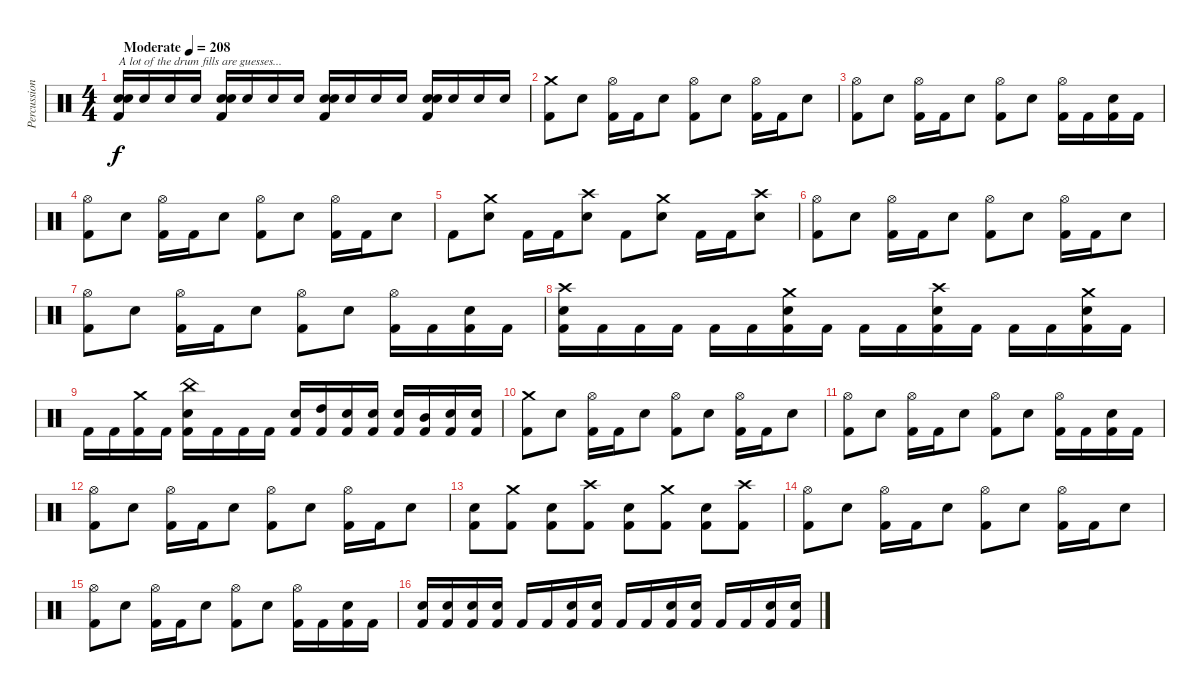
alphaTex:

\track ("Percussion" "Percussion") {instrument percussion}
\staff {score}
\articulation defaults
\ts (4 4)
\tempo (208 "Moderate")
\clef neutral
\ks c
("Electric Snare (hit)" "Electric Snare (hit)" "Kick (hit) 2").16{txt "A lot of the drum fills are guesses..." dy f} "Electric Snare (hit)".16 "Electric Snare (hit)".16 "Electric Snare (hit)".16 ("Electric Snare (hit)" "Electric Snare (hit)" "Kick (hit) 2").16 "Electric Snare (hit)".16 "Electric Snare (hit)".16 "Electric Snare (hit)".16 ("Electric Snare (hit)" "Electric Snare (hit)" "Kick (hit) 2").16 "Electric Snare (hit)".16 "Electric Snare (hit)".16 "Electric Snare (hit)".16 ("Electric Snare (hit)" "Electric Snare (hit)" "Kick (hit) 2").16 "Electric Snare (hit)".16 "Electric Snare (hit)".16 "Electric Snare (hit)".16 |
("Crash medium (hit)" "Kick (hit) 2").8 "Electric Snare (hit)".8 ("Hi-Hat (open)" "Kick (hit) 2").16 "Kick (hit) 2".16 "Electric Snare (hit)".8 ("Hi-Hat (open)" "Kick (hit) 2").8 "Electric Snare (hit)".8 ("Hi-Hat (open)" "Kick (hit) 2").16 "Kick (hit) 2".16 "Electric Snare (hit)".8 |
("Hi-Hat (open)" "Kick (hit) 2").8 "Electric Snare (hit)".8 ("Hi-Hat (open)" "Kick (hit) 2").16 "Kick (hit) 2".16 "Electric Snare (hit)".8 ("Hi-Hat (open)" "Kick (hit) 2").8 "Electric Snare (hit)".8 ("Hi-Hat (open)" "Kick (hit) 2").16 "Kick (hit) 2".16 ("Electric Snare (hit)" "Kick (hit) 2").16 "Kick (hit) 2".16 |
("Hi-Hat (open)" "Kick (hit) 2").8 "Electric Snare (hit)".8 ("Hi-Hat (open)" "Kick (hit) 2").16 "Kick (hit) 2".16 "Electric Snare (hit)".8 ("Hi-Hat (open)" "Kick (hit) 2").8 "Electric Snare (hit)".8 ("Hi-Hat (open)" "Kick (hit) 2").16 "Kick (hit) 2".16 "Electric Snare (hit)".8 |
"Kick (hit) 2".8 ("Crash medium (hit)" "Electric Snare (hit)").8 "Kick (hit) 2".16 "Kick (hit) 2".16 ("Crash high (hit)" "Electric Snare (hit)").8 "Kick (hit) 2".8 ("Crash medium (hit)" "Electric Snare (hit)").8 "Kick (hit) 2".16 "Kick (hit) 2".16 ("Crash high (hit)" "Electric Snare (hit)").8 |
("Hi-Hat (open)" "Kick (hit) 2").8 "Electric Snare (hit)".8 ("Hi-Hat (open)" "Kick (hit) 2").16 "Kick (hit) 2".16 "Electric Snare (hit)".8 ("Hi-Hat (open)" "Kick (hit) 2").8 "Electric Snare (hit)".8 ("Hi-Hat (open)" "Kick (hit) 2").16 "Kick (hit) 2".16 "Electric Snare (hit)".8 |
("Hi-Hat (open)" "Kick (hit) 2").8 "Electric Snare (hit)".8 ("Hi-Hat (open)" "Kick (hit) 2").16 "Kick (hit) 2".16 "Electric Snare (hit)".8 ("Hi-Hat (open)" "Kick (hit) 2").8 "Electric Snare (hit)".8 ("Hi-Hat (open)" "Kick (hit) 2").16 "Kick (hit) 2".16 ("Electric Snare (hit)" "Kick (hit) 2").16 "Kick (hit) 2".16 |
("Crash high (hit)" "Electric Snare (hit)" "Kick (hit) 2").16 "Kick (hit) 2".16 "Kick (hit) 2".16 "Kick (hit) 2".16 "Kick (hit) 2".16 "Kick (hit) 2".16 ("Crash medium (hit)" "Electric Snare (hit)" "Kick (hit) 2").16 "Kick (hit) 2".16 "Kick (hit) 2".16 "Kick (hit) 2".16 ("Crash high (hit)" "Electric Snare (hit)" "Kick (hit) 2").16 "Kick (hit) 2".16 "Kick (hit) 2".16 "Kick (hit) 2".16 ("Crash medium (hit)" "Electric Snare (hit)" "Kick (hit) 2").16 "Kick (hit) 2".16 |
"Kick (hit) 2".16 "Kick (hit) 2".16 ("Crash medium (hit)" "Kick (hit) 2").16 "Kick (hit) 2".16 ("China (hit)" "Electric Snare (hit)" "Kick (hit) 2").16 "Kick (hit) 2".16 "Kick (hit) 2".16 "Kick (hit) 2".16 ("Electric Snare (hit)" "Kick (hit) 2").16 ("High Tom (hit)" "Kick (hit) 2").16 ("Electric Snare (hit)" "Kick (hit) 2").16 ("Electric Snare (hit)" "Kick (hit) 2").16 ("Electric Snare (hit)" "Kick (hit) 2").16 ("Mid Tom (hit)" "Kick (hit) 2").16 ("Electric Snare (hit)" "Kick (hit) 2").16 ("Electric Snare (hit)" "Kick (hit) 2").16 |
("Crash medium (hit)" "Kick (hit) 2").8 "Electric Snare (hit)".8 ("Hi-Hat (open)" "Kick (hit) 2").16 "Kick (hit) 2".16 "Electric Snare (hit)".8 ("Hi-Hat (open)" "Kick (hit) 2").8 "Electric Snare (hit)".8 ("Hi-Hat (open)" "Kick (hit) 2").16 "Kick (hit) 2".16 "Electric Snare (hit)".8 |
("Hi-Hat (open)" "Kick (hit) 2").8 "Electric Snare (hit)".8 ("Hi-Hat (open)" "Kick (hit) 2").16 "Kick (hit) 2".16 "Electric Snare (hit)".8 ("Hi-Hat (open)" "Kick (hit) 2").8 "Electric Snare (hit)".8 ("Hi-Hat (open)" "Kick (hit) 2").16 "Kick (hit) 2".16 ("Electric Snare (hit)" "Kick (hit) 2").16 "Kick (hit) 2".16 |
("Hi-Hat (open)" "Kick (hit) 2").8 "Electric Snare (hit)".8 ("Hi-Hat (open)" "Kick (hit) 2").16 "Kick (hit) 2".16 "Electric Snare (hit)".8 ("Hi-Hat (open)" "Kick (hit) 2").8 "Electric Snare (hit)".8 ("Hi-Hat (open)" "Kick (hit) 2").16 "Kick (hit) 2".16 "Electric Snare (hit)".8 |
("Electric Snare (hit)" "Kick (hit) 2").8 ("Crash medium (hit)" "Kick (hit) 2").8 ("Electric Snare (hit)" "Kick (hit) 2").8 ("Crash high (hit)" "Kick (hit) 2").8 ("Electric Snare (hit)" "Kick (hit) 2").8 ("Crash medium (hit)" "Kick (hit) 2").8 ("Electric Snare (hit)" "Kick (hit) 2").8 ("Crash high (hit)" "Kick (hit) 2").8 |
("Hi-Hat (open)" "Kick (hit) 2").8 "Electric Snare (hit)".8 ("Hi-Hat (open)" "Kick (hit) 2").16 "Kick (hit) 2".16 "Electric Snare (hit)".8 ("Hi-Hat (open)" "Kick (hit) 2").8 "Electric Snare (hit)".8 ("Hi-Hat (open)" "Kick (hit) 2").16 "Kick (hit) 2".16 "Electric Snare (hit)".8 |
("Hi-Hat (open)" "Kick (hit) 2").8 "Electric Snare (hit)".8 ("Hi-Hat (open)" "Kick (hit) 2").16 "Kick (hit) 2".16 "Electric Snare (hit)".8 ("Hi-Hat (open)" "Kick (hit) 2").8 "Electric Snare (hit)".8 ("Hi-Hat (open)" "Kick (hit) 2").16 "Kick (hit) 2".16 ("Electric Snare (hit)" "Kick (hit) 2").16 "Kick (hit) 2".16 |
("Electric Snare (hit)" "Kick (hit) 2").16 ("Electric Snare (hit)" "Kick (hit) 2").16 ("Electric Snare (hit)" "Kick (hit) 2").16 ("Electric Snare (hit)" "Kick (hit) 2").16 "Kick (hit) 2".16 "Kick (hit) 2".16 ("Electric Snare (hit)" "Kick (hit) 2").16 ("Electric Snare (hit)" "Kick (hit) 2").16 "Kick (hit) 2".16 "Kick (hit) 2".16 ("Electric Snare (hit)" "Kick (hit) 2").16 ("Electric Snare (hit)" "Kick (hit) 2").16 "Kick (hit) 2".16 "Kick (hit) 2".16 ("Electric Snare (hit)" "Kick (hit) 2").16 ("Electric Snare (hit)" "Kick (hit) 2").16
